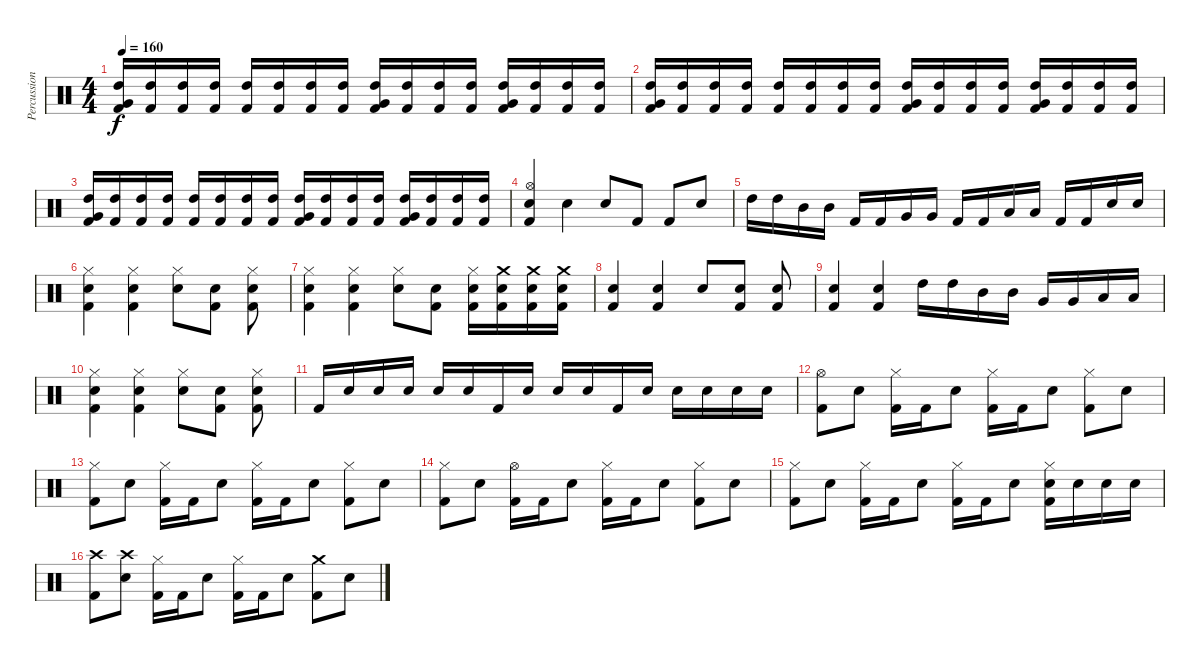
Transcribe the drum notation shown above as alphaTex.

\track ("Percussion" "Percussion") {instrument percussion}
\staff {score}
\articulation defaults
\ts (4 4)
\tempo 160
\clef neutral
\ks c
("Very Low Tom (hit)" "High Tom (hit)" "Kick (hit) 2").16{dy f} ("High Tom (hit)" "Kick (hit) 2").16 ("High Tom (hit)" "Kick (hit) 2").16 ("High Tom (hit)" "Kick (hit) 2").16 ("High Tom (hit)" "Kick (hit) 2").16 ("High Tom (hit)" "Kick (hit) 2").16 ("High Tom (hit)" "Kick (hit) 2").16 ("High Tom (hit)" "Kick (hit) 2").16 ("Very Low Tom (hit)" "High Tom (hit)" "Kick (hit) 2").16 ("High Tom (hit)" "Kick (hit) 2").16 ("High Tom (hit)" "Kick (hit) 2").16 ("High Tom (hit)" "Kick (hit) 2").16 ("Very Low Tom (hit)" "High Tom (hit)" "Kick (hit) 2").16 ("High Tom (hit)" "Kick (hit) 2").16 ("High Tom (hit)" "Kick (hit) 2").16 ("High Tom (hit)" "Kick (hit) 2").16 |
("Very Low Tom (hit)" "High Tom (hit)" "Kick (hit) 2").16 ("High Tom (hit)" "Kick (hit) 2").16 ("High Tom (hit)" "Kick (hit) 2").16 ("High Tom (hit)" "Kick (hit) 2").16 ("High Tom (hit)" "Kick (hit) 2").16 ("High Tom (hit)" "Kick (hit) 2").16 ("High Tom (hit)" "Kick (hit) 2").16 ("High Tom (hit)" "Kick (hit) 2").16 ("Very Low Tom (hit)" "High Tom (hit)" "Kick (hit) 2").16 ("High Tom (hit)" "Kick (hit) 2").16 ("High Tom (hit)" "Kick (hit) 2").16 ("High Tom (hit)" "Kick (hit) 2").16 ("Very Low Tom (hit)" "High Tom (hit)" "Kick (hit) 2").16 ("High Tom (hit)" "Kick (hit) 2").16 ("High Tom (hit)" "Kick (hit) 2").16 ("High Tom (hit)" "Kick (hit) 2").16 |
("Very Low Tom (hit)" "High Tom (hit)" "Kick (hit) 2").16 ("High Tom (hit)" "Kick (hit) 2").16 ("High Tom (hit)" "Kick (hit) 2").16 ("High Tom (hit)" "Kick (hit) 2").16 ("High Tom (hit)" "Kick (hit) 2").16 ("High Tom (hit)" "Kick (hit) 2").16 ("High Tom (hit)" "Kick (hit) 2").16 ("High Tom (hit)" "Kick (hit) 2").16 ("Very Low Tom (hit)" "High Tom (hit)" "Kick (hit) 2").16 ("High Tom (hit)" "Kick (hit) 2").16 ("High Tom (hit)" "Kick (hit) 2").16 ("High Tom (hit)" "Kick (hit) 2").16 ("Very Low Tom (hit)" "High Tom (hit)" "Kick (hit) 2").16 ("High Tom (hit)" "Kick (hit) 2").16 ("High Tom (hit)" "Kick (hit) 2").16 ("High Tom (hit)" "Kick (hit) 2").16 |
("Hi-Hat (open)" "Electric Snare (hit)" "Kick (hit) 2").4 "Electric Snare (hit)".4 "Electric Snare (hit)".8 "Kick (hit) 2".8 "Kick (hit) 2".8 "Electric Snare (hit)".8 |
"High Tom (hit)".16 "High Tom (hit)".16 "Mid Tom (hit)".16 "Mid Tom (hit)".16 "Kick (hit) 2".16 "Kick (hit) 2".16 "Very Low Tom (hit)".16 "Very Low Tom (hit)".16 "Kick (hit) 2".16 "Kick (hit) 2".16 "Low Floor Tom (hit)".16 "Low Floor Tom (hit)".16 "Kick (hit) 2".16 "Kick (hit) 2".16 "Electric Snare (hit)".16 "Electric Snare (hit)".16 |
("Hi-Hat (closed)" "Electric Snare (hit)" "Kick (hit) 2").4 ("Hi-Hat (closed)" "Electric Snare (hit)" "Kick (hit) 2").4 ("Hi-Hat (closed)" "Electric Snare (hit)").8 ("Electric Snare (hit)" "Kick (hit) 2").8 ("Hi-Hat (closed)" "Electric Snare (hit)" "Kick (hit) 2").8 |
("Hi-Hat (closed)" "Electric Snare (hit)" "Kick (hit) 2").4 ("Hi-Hat (closed)" "Electric Snare (hit)" "Kick (hit) 2").4 ("Hi-Hat (closed)" "Electric Snare (hit)").8 ("Electric Snare (hit)" "Kick (hit) 2").8 ("Hi-Hat (closed)" "Electric Snare (hit)" "Kick (hit) 2").16 ("Crash medium (hit)" "Electric Snare (hit)" "Kick (hit) 2").16 ("Crash medium (hit)" "Electric Snare (hit)" "Kick (hit) 2").16 ("Crash medium (hit)" "Electric Snare (hit)" "Kick (hit) 2").16 |
("Electric Snare (hit)" "Kick (hit) 2").4 ("Electric Snare (hit)" "Kick (hit) 2").4 "Electric Snare (hit)".8 ("Electric Snare (hit)" "Kick (hit) 2").8 ("Electric Snare (hit)" "Kick (hit) 2").8 |
("Electric Snare (hit)" "Kick (hit) 2").4 ("Electric Snare (hit)" "Kick (hit) 2").4 "High Tom (hit)".16 "High Tom (hit)".16 "Mid Tom (hit)".16 "Mid Tom (hit)".16 "Very Low Tom (hit)".16 "Very Low Tom (hit)".16 "Low Floor Tom (hit)".16 "Low Floor Tom (hit)".16 |
("Hi-Hat (closed)" "Electric Snare (hit)" "Kick (hit) 2").4 ("Hi-Hat (closed)" "Electric Snare (hit)" "Kick (hit) 2").4 ("Hi-Hat (closed)" "Electric Snare (hit)").8 ("Electric Snare (hit)" "Kick (hit) 2").8 ("Hi-Hat (closed)" "Electric Snare (hit)" "Kick (hit) 2").8 |
"Kick (hit) 2".16 "Electric Snare (hit)".16 "Electric Snare (hit)".16 "Electric Snare (hit)".16 "Electric Snare (hit)".16 "Electric Snare (hit)".16 "Kick (hit) 2".16 "Electric Snare (hit)".16 "Electric Snare (hit)".16 "Electric Snare (hit)".16 "Kick (hit) 2".16 "Electric Snare (hit)".16 "Electric Snare (hit)".16 "Electric Snare (hit)".16 "Electric Snare (hit)".16 "Electric Snare (hit)".16 |
("Hi-Hat (open)" "Kick (hit) 2").8 "Electric Snare (hit)".8 ("Hi-Hat (closed)" "Kick (hit) 2").16 "Kick (hit) 2".16 "Electric Snare (hit)".8 ("Hi-Hat (closed)" "Kick (hit) 2").16 "Kick (hit) 2".16 "Electric Snare (hit)".8 ("Hi-Hat (closed)" "Kick (hit) 2").8 "Electric Snare (hit)".8 |
("Hi-Hat (closed)" "Kick (hit) 2").8 "Electric Snare (hit)".8 ("Hi-Hat (closed)" "Kick (hit) 2").16 "Kick (hit) 2".16 "Electric Snare (hit)".8 ("Hi-Hat (closed)" "Kick (hit) 2").16 "Kick (hit) 2".16 "Electric Snare (hit)".8 ("Hi-Hat (closed)" "Kick (hit) 2").8 "Electric Snare (hit)".8 |
("Hi-Hat (closed)" "Kick (hit) 2").8 "Electric Snare (hit)".8 ("Hi-Hat (open)" "Kick (hit) 2").16 "Kick (hit) 2".16 "Electric Snare (hit)".8 ("Hi-Hat (closed)" "Kick (hit) 2").16 "Kick (hit) 2".16 "Electric Snare (hit)".8 ("Hi-Hat (closed)" "Kick (hit) 2").8 "Electric Snare (hit)".8 |
("Hi-Hat (closed)" "Kick (hit) 2").8 "Electric Snare (hit)".8 ("Hi-Hat (closed)" "Kick (hit) 2").16 "Kick (hit) 2".16 "Electric Snare (hit)".8 ("Hi-Hat (closed)" "Kick (hit) 2").16 "Kick (hit) 2".16 "Electric Snare (hit)".8 ("Hi-Hat (closed)" "Electric Snare (hit)" "Kick (hit) 2").16 "Electric Snare (hit)".16 "Electric Snare (hit)".16 "Electric Snare (hit)".16 |
("Crash high (hit)" "Kick (hit) 2").8 ("Crash high (hit)" "Electric Snare (hit)").8 ("Hi-Hat (closed)" "Kick (hit) 2").16 "Kick (hit) 2".16 "Electric Snare (hit)".8 ("Hi-Hat (closed)" "Kick (hit) 2").16 "Kick (hit) 2".16 "Electric Snare (hit)".8 ("Crash medium (hit)" "Kick (hit) 2").8 "Electric Snare (hit)".8
